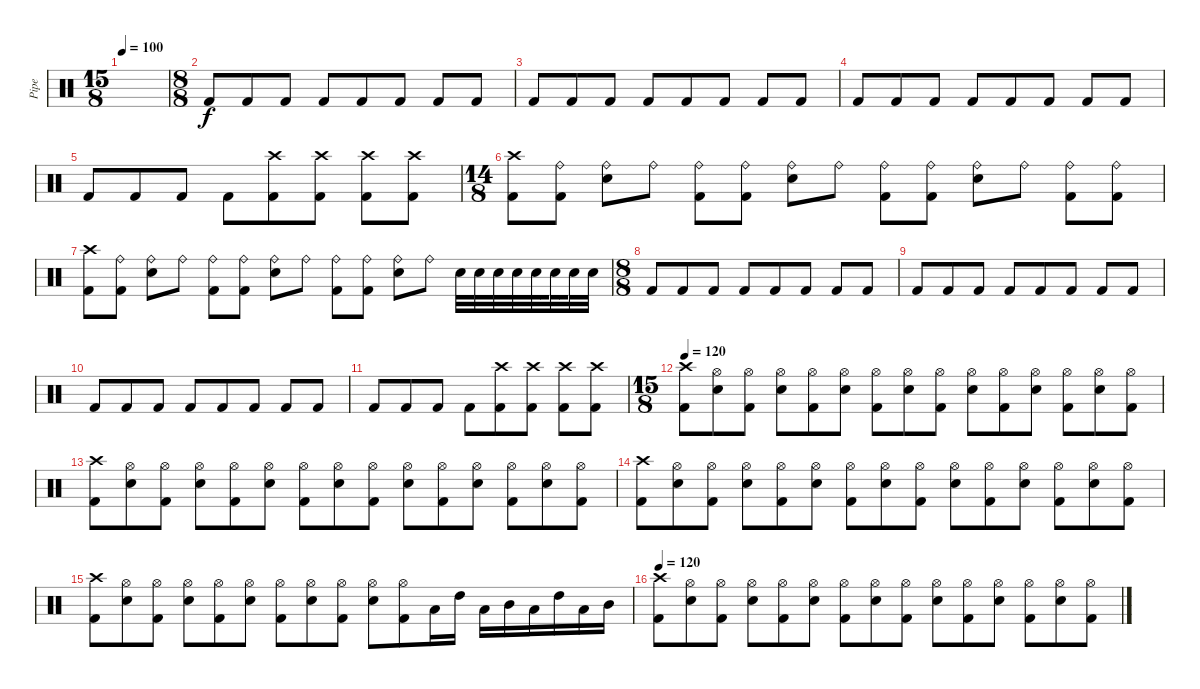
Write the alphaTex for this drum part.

\track ("Pipe" "Pipe") {instrument percussion}
\staff {score}
\articulation defaults
\ts (15 8)
\tempo 100
\clef neutral
\ks c
|
\ts (8 8)
"Kick (hit) 2".8 "Kick (hit) 2".8 "Kick (hit) 2".8 "Kick (hit) 2".8 "Kick (hit) 2".8 "Kick (hit) 2".8 "Kick (hit) 2".8 "Kick (hit) 2".8 |
"Kick (hit) 2".8 "Kick (hit) 2".8 "Kick (hit) 2".8 "Kick (hit) 2".8 "Kick (hit) 2".8 "Kick (hit) 2".8 "Kick (hit) 2".8 "Kick (hit) 2".8 |
"Kick (hit) 2".8 "Kick (hit) 2".8 "Kick (hit) 2".8 "Kick (hit) 2".8 "Kick (hit) 2".8 "Kick (hit) 2".8 "Kick (hit) 2".8 "Kick (hit) 2".8 |
"Kick (hit) 2".8 "Kick (hit) 2".8 "Kick (hit) 2".8 "Kick (hit) 2".8 ("Crash high (hit)" "Kick (hit) 2").8 ("Crash high (hit)" "Kick (hit) 2").8 ("Crash high (hit)" "Kick (hit) 2").8 ("Crash high (hit)" "Kick (hit) 2").8 |
\ts (14 8)
("Kick (hit) 2" "Crash high (hit)").8 ("Kick (hit) 2" "Ride (bell)").8 ("Snare (hit) 2" "Ride (bell)").8 "Ride (bell)".8 ("Kick (hit) 2" "Ride (bell)").8 ("Kick (hit) 2" "Ride (bell)").8 ("Snare (hit) 2" "Ride (bell)").8 "Ride (bell)".8 ("Kick (hit) 2" "Ride (bell)").8 ("Kick (hit) 2" "Ride (bell)").8 ("Snare (hit) 2" "Ride (bell)").8 "Ride (bell)".8 ("Kick (hit) 2" "Ride (bell)").8 ("Kick (hit) 2" "Ride (bell)").8 |
("Kick (hit) 2" "Crash high (hit)").8 ("Kick (hit) 2" "Ride (bell)").8 ("Snare (hit) 2" "Ride (bell)").8 "Ride (bell)".8 ("Kick (hit) 2" "Ride (bell)").8 ("Kick (hit) 2" "Ride (bell)").8 ("Snare (hit) 2" "Ride (bell)").8 "Ride (bell)".8 ("Kick (hit) 2" "Ride (bell)").8 ("Kick (hit) 2" "Ride (bell)").8 ("Snare (hit) 2" "Ride (bell)").8 "Ride (bell)".8 "Snare (hit) 2".32{beam splitsecondary} "Snare (hit) 2".32{beam splitsecondary} "Snare (hit) 2".32 "Snare (hit) 2".32 "Snare (hit) 2".32{beam splitsecondary} "Snare (hit) 2".32{beam splitsecondary} "Snare (hit) 2".32 "Snare (hit) 2".32 |
\ts (8 8)
"Kick (hit) 2".8 "Kick (hit) 2".8 "Kick (hit) 2".8 "Kick (hit) 2".8 "Kick (hit) 2".8 "Kick (hit) 2".8 "Kick (hit) 2".8 "Kick (hit) 2".8 |
"Kick (hit) 2".8 "Kick (hit) 2".8 "Kick (hit) 2".8 "Kick (hit) 2".8 "Kick (hit) 2".8 "Kick (hit) 2".8 "Kick (hit) 2".8 "Kick (hit) 2".8 |
"Kick (hit) 2".8 "Kick (hit) 2".8 "Kick (hit) 2".8 "Kick (hit) 2".8 "Kick (hit) 2".8 "Kick (hit) 2".8 "Kick (hit) 2".8 "Kick (hit) 2".8 |
"Kick (hit) 2".8 "Kick (hit) 2".8 "Kick (hit) 2".8 "Kick (hit) 2".8 ("Crash high (hit)" "Kick (hit) 2").8 ("Crash high (hit)" "Kick (hit) 2").8 ("Crash high (hit)" "Kick (hit) 2").8 ("Crash high (hit)" "Kick (hit) 2").8 |
\ts (15 8)
\tempo 120
("Kick (hit) 2" "Crash high (hit)").8 ("Snare (hit) 2" "Hi-Hat (open)").8 ("Kick (hit) 2" "Hi-Hat (open)").8 ("Snare (hit) 2" "Hi-Hat (open)").8 ("Kick (hit) 2" "Hi-Hat (open)").8 ("Snare (hit) 2" "Hi-Hat (open)").8 ("Kick (hit) 2" "Hi-Hat (open)").8 ("Snare (hit) 2" "Hi-Hat (open)").8 ("Kick (hit) 2" "Hi-Hat (open)").8 ("Snare (hit) 2" "Hi-Hat (open)").8 ("Kick (hit) 2" "Hi-Hat (open)").8 ("Snare (hit) 2" "Hi-Hat (open)").8 ("Kick (hit) 2" "Hi-Hat (open)").8 ("Snare (hit) 2" "Hi-Hat (open)").8 ("Kick (hit) 2" "Hi-Hat (open)").8 |
("Kick (hit) 2" "Crash high (hit)").8 ("Snare (hit) 2" "Hi-Hat (open)").8 ("Kick (hit) 2" "Hi-Hat (open)").8 ("Snare (hit) 2" "Hi-Hat (open)").8 ("Kick (hit) 2" "Hi-Hat (open)").8 ("Snare (hit) 2" "Hi-Hat (open)").8 ("Kick (hit) 2" "Hi-Hat (open)").8 ("Snare (hit) 2" "Hi-Hat (open)").8 ("Kick (hit) 2" "Hi-Hat (open)").8 ("Snare (hit) 2" "Hi-Hat (open)").8 ("Kick (hit) 2" "Hi-Hat (open)").8 ("Snare (hit) 2" "Hi-Hat (open)").8 ("Kick (hit) 2" "Hi-Hat (open)").8 ("Snare (hit) 2" "Hi-Hat (open)").8 ("Kick (hit) 2" "Hi-Hat (open)").8 |
("Kick (hit) 2" "Crash high (hit)").8 ("Snare (hit) 2" "Hi-Hat (open)").8 ("Kick (hit) 2" "Hi-Hat (open)").8 ("Snare (hit) 2" "Hi-Hat (open)").8 ("Kick (hit) 2" "Hi-Hat (open)").8 ("Snare (hit) 2" "Hi-Hat (open)").8 ("Kick (hit) 2" "Hi-Hat (open)").8 ("Snare (hit) 2" "Hi-Hat (open)").8 ("Kick (hit) 2" "Hi-Hat (open)").8 ("Snare (hit) 2" "Hi-Hat (open)").8 ("Kick (hit) 2" "Hi-Hat (open)").8 ("Snare (hit) 2" "Hi-Hat (open)").8 ("Kick (hit) 2" "Hi-Hat (open)").8 ("Snare (hit) 2" "Hi-Hat (open)").8 ("Kick (hit) 2" "Hi-Hat (open)").8 |
("Kick (hit) 2" "Crash high (hit)").8 ("Snare (hit) 2" "Hi-Hat (open)").8 ("Kick (hit) 2" "Hi-Hat (open)").8 ("Snare (hit) 2" "Hi-Hat (open)").8 ("Kick (hit) 2" "Hi-Hat (open)").8 ("Snare (hit) 2" "Hi-Hat (open)").8 ("Kick (hit) 2" "Hi-Hat (open)").8 ("Snare (hit) 2" "Hi-Hat (open)").8 ("Kick (hit) 2" "Hi-Hat (open)").8 ("Snare (hit) 2" "Hi-Hat (open)").8 ("Kick (hit) 2" "Hi-Hat (open)").8 "Low Tom (hit)".16 "High Tom (hit)".16 "Low Tom (hit)".16 "Mid Tom (hit)".16 "Low Tom (hit)".16 "High Tom (hit)".16 "Low Tom (hit)".16 "Mid Tom (hit)".16 |
\tempo 120
("Kick (hit) 2" "Crash high (hit)").8 ("Snare (hit) 2" "Hi-Hat (open)").8 ("Kick (hit) 2" "Hi-Hat (open)").8 ("Snare (hit) 2" "Hi-Hat (open)").8 ("Kick (hit) 2" "Hi-Hat (open)").8 ("Snare (hit) 2" "Hi-Hat (open)").8 ("Kick (hit) 2" "Hi-Hat (open)").8 ("Snare (hit) 2" "Hi-Hat (open)").8 ("Kick (hit) 2" "Hi-Hat (open)").8 ("Snare (hit) 2" "Hi-Hat (open)").8 ("Kick (hit) 2" "Hi-Hat (open)").8 ("Snare (hit) 2" "Hi-Hat (open)").8 ("Kick (hit) 2" "Hi-Hat (open)").8 ("Snare (hit) 2" "Hi-Hat (open)").8 ("Kick (hit) 2" "Hi-Hat (open)").8
